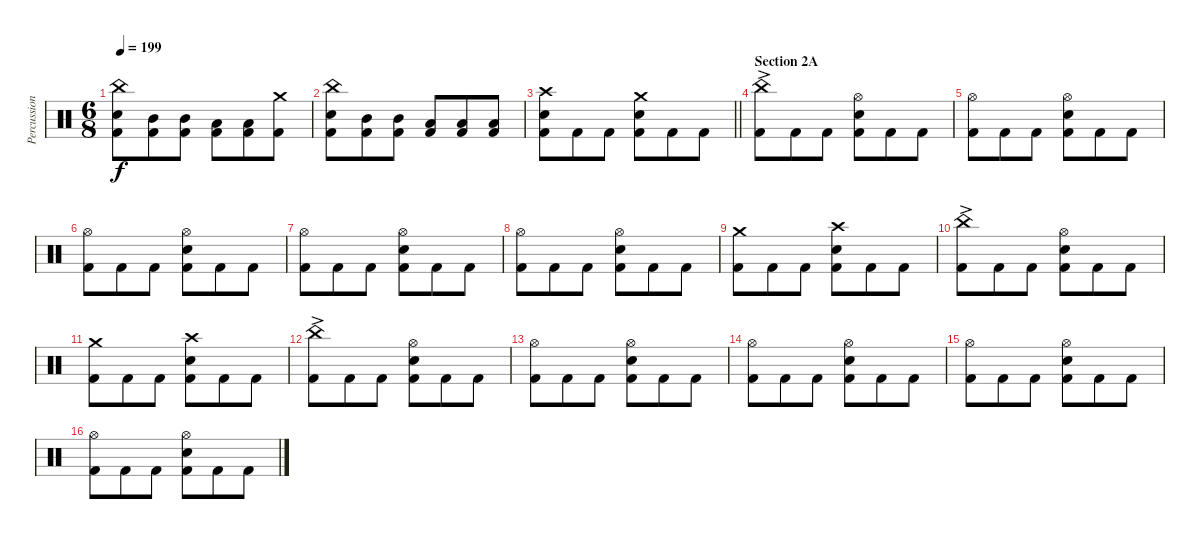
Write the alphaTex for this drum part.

\track ("Percussion" "Percussion") {instrument percussion}
\staff {score}
\articulation defaults
\ts (6 8)
\tempo 199
\clef neutral
\ks c
("China (hit)" "Electric Snare (hit)" "Kick (hit) 2").8{dy f} ("Mid Tom (hit)" "Kick (hit) 2").8 ("Mid Tom (hit)" "Kick (hit) 2").8 ("Low Tom (hit)" "Kick (hit) 2").8 ("Low Tom (hit)" "Kick (hit) 2").8 ("Crash medium (hit)" "Kick (hit) 2").8 |
("China (hit)" "Electric Snare (hit)" "Kick (hit) 2").8 ("Mid Tom (hit)" "Kick (hit) 2").8 ("Mid Tom (hit)" "Kick (hit) 2").8 ("Low Tom (hit)" "Kick (hit) 2").8 ("Low Tom (hit)" "Kick (hit) 2").8 ("Low Tom (hit)" "Kick (hit) 2").8 |
\barLineRight lightlight
("Crash high (hit)" "Electric Snare (hit)" "Kick (hit) 2").8 "Kick (hit) 2".8 "Kick (hit) 2".8 ("Crash medium (hit)" "Electric Snare (hit)" "Kick (hit) 2").8 "Kick (hit) 2".8 "Kick (hit) 2".8 |
\section ("" "Section 2A")
("China (hit)"{ac} "Kick (hit) 2").8 "Kick (hit) 2".8 "Kick (hit) 2".8 ("Hi-Hat (open)" "Electric Snare (hit)" "Kick (hit) 2").8 "Kick (hit) 2".8 "Kick (hit) 2".8 |
("Hi-Hat (open)" "Kick (hit) 2").8 "Kick (hit) 2".8 "Kick (hit) 2".8 ("Hi-Hat (open)" "Electric Snare (hit)" "Kick (hit) 2").8 "Kick (hit) 2".8 "Kick (hit) 2".8 |
("Hi-Hat (open)" "Kick (hit) 2").8 "Kick (hit) 2".8 "Kick (hit) 2".8 ("Hi-Hat (open)" "Electric Snare (hit)" "Kick (hit) 2").8 "Kick (hit) 2".8 "Kick (hit) 2".8 |
("Hi-Hat (open)" "Kick (hit) 2").8 "Kick (hit) 2".8 "Kick (hit) 2".8 ("Hi-Hat (open)" "Electric Snare (hit)" "Kick (hit) 2").8 "Kick (hit) 2".8 "Kick (hit) 2".8 |
("Hi-Hat (open)" "Kick (hit) 2").8 "Kick (hit) 2".8 "Kick (hit) 2".8 ("Hi-Hat (open)" "Electric Snare (hit)" "Kick (hit) 2").8 "Kick (hit) 2".8 "Kick (hit) 2".8 |
("Crash medium (hit)" "Kick (hit) 2").8 "Kick (hit) 2".8 "Kick (hit) 2".8 ("Crash high (hit)" "Electric Snare (hit)" "Kick (hit) 2").8 "Kick (hit) 2".8 "Kick (hit) 2".8 |
("China (hit)"{ac} "Kick (hit) 2").8 "Kick (hit) 2".8 "Kick (hit) 2".8 ("Hi-Hat (open)" "Electric Snare (hit)" "Kick (hit) 2").8 "Kick (hit) 2".8 "Kick (hit) 2".8 |
("Crash medium (hit)" "Kick (hit) 2").8 "Kick (hit) 2".8 "Kick (hit) 2".8 ("Crash high (hit)" "Electric Snare (hit)" "Kick (hit) 2").8 "Kick (hit) 2".8 "Kick (hit) 2".8 |
("China (hit)"{ac} "Kick (hit) 2").8 "Kick (hit) 2".8 "Kick (hit) 2".8 ("Hi-Hat (open)" "Electric Snare (hit)" "Kick (hit) 2").8 "Kick (hit) 2".8 "Kick (hit) 2".8 |
("Hi-Hat (open)" "Kick (hit) 2").8 "Kick (hit) 2".8 "Kick (hit) 2".8 ("Hi-Hat (open)" "Electric Snare (hit)" "Kick (hit) 2").8 "Kick (hit) 2".8 "Kick (hit) 2".8 |
("Hi-Hat (open)" "Kick (hit) 2").8 "Kick (hit) 2".8 "Kick (hit) 2".8 ("Hi-Hat (open)" "Electric Snare (hit)" "Kick (hit) 2").8 "Kick (hit) 2".8 "Kick (hit) 2".8 |
("Hi-Hat (open)" "Kick (hit) 2").8 "Kick (hit) 2".8 "Kick (hit) 2".8 ("Hi-Hat (open)" "Electric Snare (hit)" "Kick (hit) 2").8 "Kick (hit) 2".8 "Kick (hit) 2".8 |
("Hi-Hat (open)" "Kick (hit) 2").8 "Kick (hit) 2".8 "Kick (hit) 2".8 ("Hi-Hat (open)" "Electric Snare (hit)" "Kick (hit) 2").8 "Kick (hit) 2".8 "Kick (hit) 2".8
